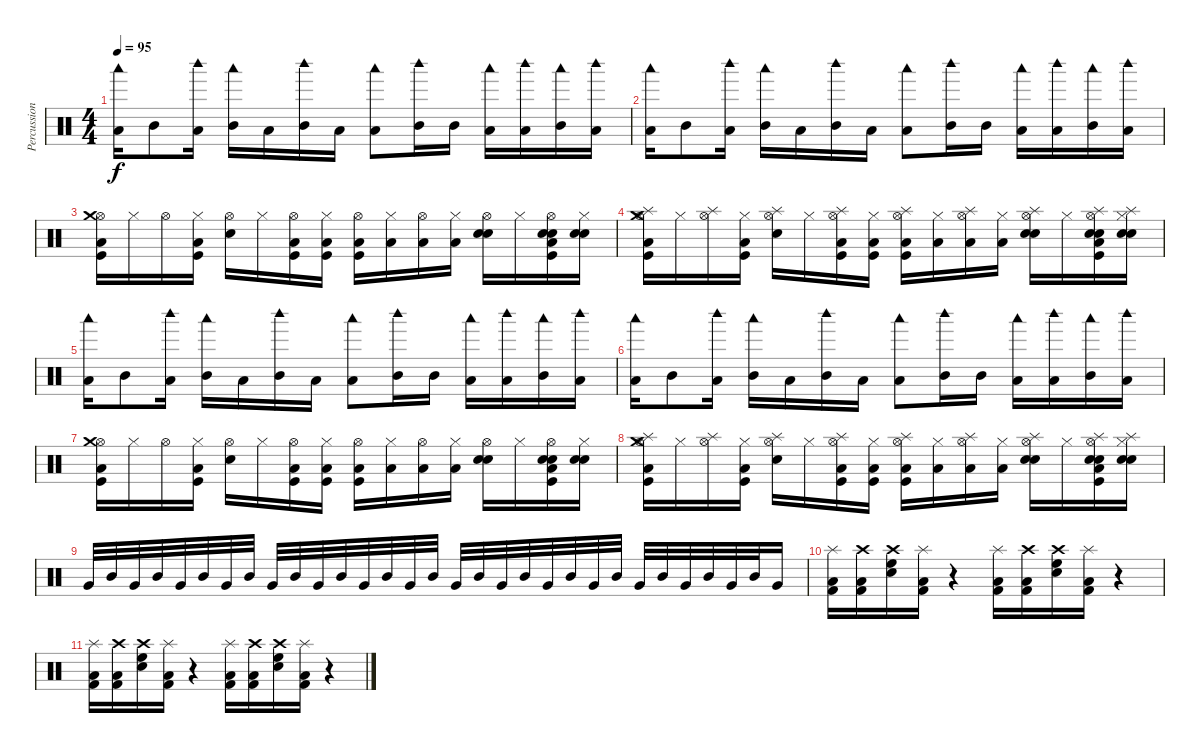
\track ("Percussion" "Percussion") {instrument percussion}
\staff {score}
\articulation defaults
\ts (4 4)
\tempo 95
\clef neutral
\ks c
("Low Floor Tom (hit)" "Woodblock low (hit)").16{dy f} "Mid Tom (hit)".8 ("Low Floor Tom (hit)" "Woodblock high (hit)").16 ("Mid Tom (hit)" "Woodblock low (hit)").16 "Low Floor Tom (hit)".16 ("Mid Tom (hit)" "Woodblock high (hit)").16 "Low Floor Tom (hit)".16 ("Low Floor Tom (hit)" "Woodblock low (hit)").8 ("Mid Tom (hit)" "Woodblock high (hit)").16 "Mid Tom (hit)".16 ("Low Floor Tom (hit)" "Woodblock low (hit)").16 ("Low Floor Tom (hit)" "Woodblock high (hit)").16 ("Mid Tom (hit)" "Woodblock low (hit)").16 ("Low Floor Tom (hit)" "Woodblock high (hit)").16 |
("Low Floor Tom (hit)" "Woodblock low (hit)").16 "Mid Tom (hit)".8 ("Low Floor Tom (hit)" "Woodblock high (hit)").16 ("Mid Tom (hit)" "Woodblock low (hit)").16 "Low Floor Tom (hit)".16 ("Mid Tom (hit)" "Woodblock high (hit)").16 "Low Floor Tom (hit)".16 ("Low Floor Tom (hit)" "Woodblock low (hit)").8 ("Mid Tom (hit)" "Woodblock high (hit)").16 "Mid Tom (hit)".16 ("Low Floor Tom (hit)" "Woodblock low (hit)").16 ("Low Floor Tom (hit)" "Woodblock high (hit)").16 ("Mid Tom (hit)" "Woodblock low (hit)").16 ("Low Floor Tom (hit)" "Woodblock high (hit)").16 |
("Low Floor Tom (hit)" "Kick (hit)" "Hi-Hat (open)" "Crash medium (hit)").16 "Hi-Hat (closed)".16 "Hi-Hat (open)".16 ("Low Floor Tom (hit)" "Kick (hit)" "Hi-Hat (closed)").16 ("Snare (hit) 2" "Hi-Hat (open)").16 "Hi-Hat (closed)".16 ("Low Floor Tom (hit)" "Kick (hit)" "Hi-Hat (open)").16 ("Low Floor Tom (hit)" "Kick (hit)" "Hi-Hat (closed)").16 ("Low Floor Tom (hit)" "Kick (hit)" "Hi-Hat (open)").16 ("Low Floor Tom (hit)" "Hi-Hat (closed)").16 ("Low Floor Tom (hit)" "Hi-Hat (open)").16 ("Low Floor Tom (hit)" "Hi-Hat (closed)").16 ("Electric Snare (hit)" "Snare (hit) 2" "Hi-Hat (open)").16 "Hi-Hat (closed)".16 ("Low Floor Tom (hit)" "Kick (hit)" "Snare (hit) 2" "Electric Snare (hit)" "Hi-Hat (open)").16 ("Snare (hit) 2" "Electric Snare (hit)" "Hi-Hat (closed)").16 |
("Low Floor Tom (hit)" "Kick (hit)" "Splash (hit)" "Hi-Hat (open)" "Crash medium (hit)").16 "Hi-Hat (closed)".16 ("Splash (hit)" "Hi-Hat (open)").16 ("Low Floor Tom (hit)" "Kick (hit)" "Hi-Hat (closed)").16 ("Snare (hit) 2" "Splash (hit)" "Hi-Hat (open)").16 "Hi-Hat (closed)".16 ("Low Floor Tom (hit)" "Kick (hit)" "Splash (hit)" "Hi-Hat (open)").16 ("Low Floor Tom (hit)" "Kick (hit)" "Hi-Hat (closed)").16 ("Low Floor Tom (hit)" "Kick (hit)" "Splash (hit)" "Hi-Hat (open)").16 ("Low Floor Tom (hit)" "Hi-Hat (closed)").16 ("Low Floor Tom (hit)" "Splash (hit)" "Hi-Hat (open)").16 ("Low Floor Tom (hit)" "Hi-Hat (closed)").16 ("Electric Snare (hit)" "Snare (hit) 2" "Splash (hit)" "Hi-Hat (open)").16 "Hi-Hat (closed)".16 ("Low Floor Tom (hit)" "Kick (hit)" "Snare (hit) 2" "Electric Snare (hit)" "Hi-Hat (open)" "Splash (hit)").16 ("Snare (hit) 2" "Electric Snare (hit)" "Hi-Hat (closed)" "Splash (hit)").16 |
("Low Floor Tom (hit)" "Woodblock low (hit)").16 "Mid Tom (hit)".8 ("Low Floor Tom (hit)" "Woodblock high (hit)").16 ("Mid Tom (hit)" "Woodblock low (hit)").16 "Low Floor Tom (hit)".16 ("Mid Tom (hit)" "Woodblock high (hit)").16 "Low Floor Tom (hit)".16 ("Low Floor Tom (hit)" "Woodblock low (hit)").8 ("Mid Tom (hit)" "Woodblock high (hit)").16 "Mid Tom (hit)".16 ("Low Floor Tom (hit)" "Woodblock low (hit)").16 ("Low Floor Tom (hit)" "Woodblock high (hit)").16 ("Mid Tom (hit)" "Woodblock low (hit)").16 ("Low Floor Tom (hit)" "Woodblock high (hit)").16 |
("Low Floor Tom (hit)" "Woodblock low (hit)").16 "Mid Tom (hit)".8 ("Low Floor Tom (hit)" "Woodblock high (hit)").16 ("Mid Tom (hit)" "Woodblock low (hit)").16 "Low Floor Tom (hit)".16 ("Mid Tom (hit)" "Woodblock high (hit)").16 "Low Floor Tom (hit)".16 ("Low Floor Tom (hit)" "Woodblock low (hit)").8 ("Mid Tom (hit)" "Woodblock high (hit)").16 "Mid Tom (hit)".16 ("Low Floor Tom (hit)" "Woodblock low (hit)").16 ("Low Floor Tom (hit)" "Woodblock high (hit)").16 ("Mid Tom (hit)" "Woodblock low (hit)").16 ("Low Floor Tom (hit)" "Woodblock high (hit)").16 |
("Low Floor Tom (hit)" "Kick (hit)" "Hi-Hat (open)" "Crash medium (hit)").16 "Hi-Hat (closed)".16 "Hi-Hat (open)".16 ("Low Floor Tom (hit)" "Kick (hit)" "Hi-Hat (closed)").16 ("Snare (hit) 2" "Hi-Hat (open)").16 "Hi-Hat (closed)".16 ("Low Floor Tom (hit)" "Kick (hit)" "Hi-Hat (open)").16 ("Low Floor Tom (hit)" "Kick (hit)" "Hi-Hat (closed)").16 ("Low Floor Tom (hit)" "Kick (hit)" "Hi-Hat (open)").16 ("Low Floor Tom (hit)" "Hi-Hat (closed)").16 ("Low Floor Tom (hit)" "Hi-Hat (open)").16 ("Low Floor Tom (hit)" "Hi-Hat (closed)").16 ("Electric Snare (hit)" "Snare (hit) 2" "Hi-Hat (open)").16 "Hi-Hat (closed)".16 ("Low Floor Tom (hit)" "Kick (hit)" "Snare (hit) 2" "Electric Snare (hit)" "Hi-Hat (open)").16 ("Snare (hit) 2" "Electric Snare (hit)" "Hi-Hat (closed)").16 |
("Low Floor Tom (hit)" "Kick (hit)" "Splash (hit)" "Hi-Hat (open)" "Crash medium (hit)").16 "Hi-Hat (closed)".16 ("Splash (hit)" "Hi-Hat (open)").16 ("Low Floor Tom (hit)" "Kick (hit)" "Hi-Hat (closed)").16 ("Snare (hit) 2" "Splash (hit)" "Hi-Hat (open)").16 "Hi-Hat (closed)".16 ("Low Floor Tom (hit)" "Kick (hit)" "Splash (hit)" "Hi-Hat (open)").16 ("Low Floor Tom (hit)" "Kick (hit)" "Hi-Hat (closed)").16 ("Low Floor Tom (hit)" "Kick (hit)" "Splash (hit)" "Hi-Hat (open)").16 ("Low Floor Tom (hit)" "Hi-Hat (closed)").16 ("Low Floor Tom (hit)" "Splash (hit)" "Hi-Hat (open)").16 ("Low Floor Tom (hit)" "Hi-Hat (closed)").16 ("Electric Snare (hit)" "Snare (hit) 2" "Splash (hit)" "Hi-Hat (open)").16 "Hi-Hat (closed)".16 ("Low Floor Tom (hit)" "Kick (hit)" "Snare (hit) 2" "Electric Snare (hit)" "Hi-Hat (open)" "Splash (hit)").16 ("Snare (hit) 2" "Electric Snare (hit)" "Hi-Hat (closed)" "Splash (hit)").16 |
"Very Low Tom (hit)".32 "Mid Tom (hit)".32 "Very Low Tom (hit)".32 "Mid Tom (hit)".32 "Very Low Tom (hit)".32 "Mid Tom (hit)".32 "Very Low Tom (hit)".32 "Mid Tom (hit)".32 "Very Low Tom (hit)".32 "Mid Tom (hit)".32 "Very Low Tom (hit)".32 "Mid Tom (hit)".32 "Very Low Tom (hit)".32 "Mid Tom (hit)".32 "Very Low Tom (hit)".32 "Mid Tom (hit)".32 "Very Low Tom (hit)".32 "Mid Tom (hit)".32 "Very Low Tom (hit)".32 "Mid Tom (hit)".32 "Very Low Tom (hit)".32 "Mid Tom (hit)".32 "Very Low Tom (hit)".32 "Mid Tom (hit)".32 "Very Low Tom (hit)".32 "Mid Tom (hit)".32 "Very Low Tom (hit)".32 "Mid Tom (hit)".32 "Very Low Tom (hit)".32 "Mid Tom (hit)".32 "Very Low Tom (hit)".16 |
("Low Floor Tom (hit)" "Kick (hit) 2" "Splash (hit)").16 ("Low Floor Tom (hit)" "Kick (hit) 2" "Crash high (hit)").16 ("Electric Snare (hit)" "High Floor Tom (hit)" "Crash high (hit)").16 ("Low Floor Tom (hit)" "Kick (hit) 2" "Splash (hit)").16 r.4 ("Low Floor Tom (hit)" "Kick (hit) 2" "Splash (hit)").16 ("Low Floor Tom (hit)" "Kick (hit) 2" "Crash high (hit)").16 ("Electric Snare (hit)" "High Floor Tom (hit)" "Crash high (hit)").16 ("Low Floor Tom (hit)" "Kick (hit) 2" "Splash (hit)").16 r.4 |
("Low Floor Tom (hit)" "Kick (hit) 2" "Splash (hit)").16 ("Low Floor Tom (hit)" "Kick (hit) 2" "Crash high (hit)").16 ("Electric Snare (hit)" "High Floor Tom (hit)" "Crash high (hit)").16 ("Low Floor Tom (hit)" "Kick (hit) 2" "Splash (hit)").16 r.4 ("Low Floor Tom (hit)" "Kick (hit) 2" "Splash (hit)").16 ("Low Floor Tom (hit)" "Kick (hit) 2" "Crash high (hit)").16 ("Electric Snare (hit)" "High Floor Tom (hit)" "Crash high (hit)").16 ("Low Floor Tom (hit)" "Kick (hit) 2" "Splash (hit)").16 r.4
